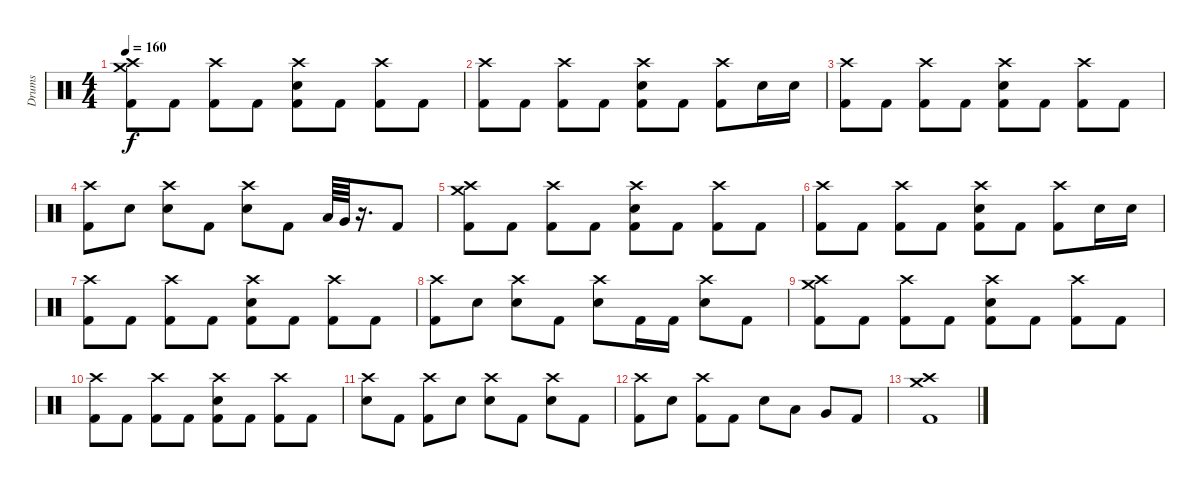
\track ("Drums" "Drums") {instrument percussion}
\staff {score}
\articulation defaults
\ts (4 4)
\tempo 160
\clef neutral
\ks c
("Crash medium (hit)" "Crash high (hit)" "Kick (hit) 2").8{dy f} "Kick (hit) 2".8 ("Crash high (hit)" "Kick (hit) 2").8 "Kick (hit) 2".8 ("Crash high (hit)" "Electric Snare (hit)" "Kick (hit) 2").8 "Kick (hit) 2".8 ("Crash high (hit)" "Kick (hit) 2").8 "Kick (hit) 2".8 |
("Crash high (hit)" "Kick (hit) 2").8 "Kick (hit) 2".8 ("Crash high (hit)" "Kick (hit) 2").8 "Kick (hit) 2".8 ("Crash high (hit)" "Electric Snare (hit)" "Kick (hit) 2").8 "Kick (hit) 2".8 ("Crash high (hit)" "Kick (hit) 2").8 "Electric Snare (hit)".16 "Electric Snare (hit)".16 |
("Crash high (hit)" "Kick (hit) 2").8 "Kick (hit) 2".8 ("Crash high (hit)" "Kick (hit) 2").8 "Kick (hit) 2".8 ("Crash high (hit)" "Electric Snare (hit)" "Kick (hit) 2").8 "Kick (hit) 2".8 ("Crash high (hit)" "Kick (hit) 2").8 "Kick (hit) 2".8 |
("Crash high (hit)" "Kick (hit) 2").8 "Electric Snare (hit)".8 ("Crash high (hit)" "Electric Snare (hit)").8 "Kick (hit) 2".8 ("Crash high (hit)" "Electric Snare (hit)").8 "Kick (hit) 2".8 "Low Tom (hit)".64 "Very Low Tom (hit)".64 r.16{d} "Kick (hit) 2".8 |
("Crash medium (hit)" "Crash high (hit)" "Kick (hit) 2").8 "Kick (hit) 2".8 ("Crash high (hit)" "Kick (hit) 2").8 "Kick (hit) 2".8 ("Crash high (hit)" "Electric Snare (hit)" "Kick (hit) 2").8 "Kick (hit) 2".8 ("Crash high (hit)" "Kick (hit) 2").8 "Kick (hit) 2".8 |
("Crash high (hit)" "Kick (hit) 2").8 "Kick (hit) 2".8 ("Crash high (hit)" "Kick (hit) 2").8 "Kick (hit) 2".8 ("Crash high (hit)" "Electric Snare (hit)" "Kick (hit) 2").8 "Kick (hit) 2".8 ("Crash high (hit)" "Kick (hit) 2").8 "Electric Snare (hit)".16 "Electric Snare (hit)".16 |
("Crash high (hit)" "Kick (hit) 2").8 "Kick (hit) 2".8 ("Crash high (hit)" "Kick (hit) 2").8 "Kick (hit) 2".8 ("Crash high (hit)" "Electric Snare (hit)" "Kick (hit) 2").8 "Kick (hit) 2".8 ("Crash high (hit)" "Kick (hit) 2").8 "Kick (hit) 2".8 |
("Crash high (hit)" "Kick (hit) 2").8 "Electric Snare (hit)".8 ("Crash high (hit)" "Electric Snare (hit)").8 "Kick (hit) 2".8 ("Crash high (hit)" "Electric Snare (hit)").8 "Kick (hit) 2".16 "Kick (hit) 2".16 ("Crash high (hit)" "Electric Snare (hit)").8 "Kick (hit) 2".8 |
("Crash medium (hit)" "Crash high (hit)" "Kick (hit) 2").8 "Kick (hit) 2".8 ("Crash high (hit)" "Kick (hit) 2").8 "Kick (hit) 2".8 ("Crash high (hit)" "Electric Snare (hit)" "Kick (hit) 2").8 "Kick (hit) 2".8 ("Crash high (hit)" "Kick (hit) 2").8 "Kick (hit) 2".8 |
("Crash high (hit)" "Kick (hit) 2").8 "Kick (hit) 2".8 ("Crash high (hit)" "Kick (hit) 2").8 "Kick (hit) 2".8 ("Crash high (hit)" "Electric Snare (hit)" "Kick (hit) 2").8 "Kick (hit) 2".8 ("Crash high (hit)" "Kick (hit) 2").8 "Kick (hit) 2".8 |
("Crash high (hit)" "Electric Snare (hit)").8 "Kick (hit) 2".8 ("Crash high (hit)" "Kick (hit) 2").8 "Electric Snare (hit)".8 ("Crash high (hit)" "Electric Snare (hit)").8 "Kick (hit) 2".8 ("Crash high (hit)" "Electric Snare (hit)").8 "Kick (hit) 2".8 |
("Crash high (hit)" "Kick (hit) 2").8 "Electric Snare (hit)".8 ("Crash high (hit)" "Kick (hit) 2").8 "Kick (hit) 2".8 "Electric Snare (hit)".8 "Low Tom (hit)".8 "Very Low Tom (hit)".8 "Kick (hit) 2".8 |
("Crash medium (hit)" "Crash high (hit)" "Kick (hit) 2").1
